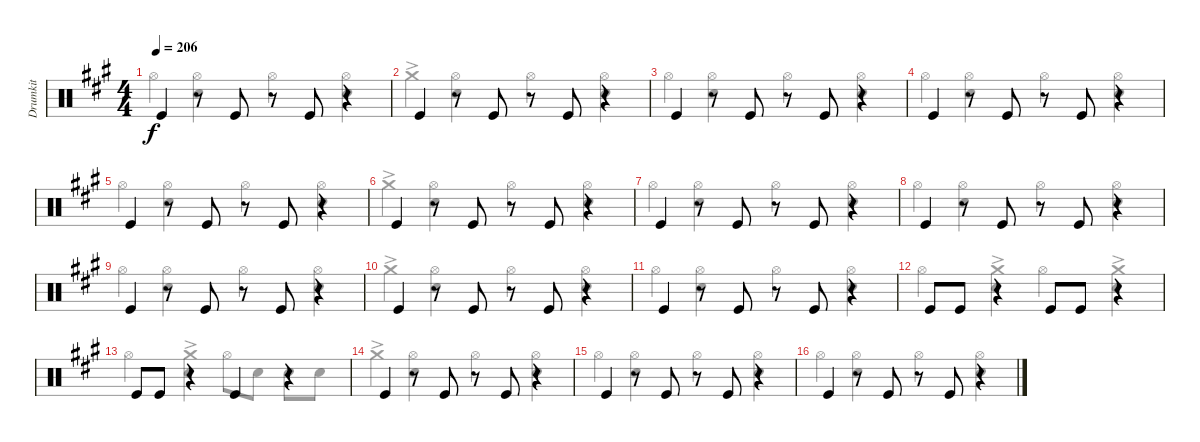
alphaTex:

\track ("Drumkit" "Drumkit") {instrument percussion}
\staff {score}
\articulation defaults
\voice
\ts (4 4)
\tempo 206
\clef neutral
\ks a "Kick (hit)".4{dy f}
r.8 "Kick (hit)".8 r.8 "Kick (hit)".8 r.4 |
"Kick (hit)".4 r.8 "Kick (hit)".8 r.8 "Kick (hit)".8 r.4 |
"Kick (hit)".4 r.8 "Kick (hit)".8 r.8 "Kick (hit)".8 r.4 |
"Kick (hit)".4 r.8 "Kick (hit)".8 r.8 "Kick (hit)".8 r.4 |
"Kick (hit)".4 r.8 "Kick (hit)".8 r.8 "Kick (hit)".8 r.4 |
"Kick (hit)".4 r.8 "Kick (hit)".8 r.8 "Kick (hit)".8 r.4 |
"Kick (hit)".4 r.8 "Kick (hit)".8 r.8 "Kick (hit)".8 r.4 |
"Kick (hit)".4 r.8 "Kick (hit)".8 r.8 "Kick (hit)".8 r.4 |
"Kick (hit)".4 r.8 "Kick (hit)".8 r.8 "Kick (hit)".8 r.4 |
"Kick (hit)".4 r.8 "Kick (hit)".8 r.8 "Kick (hit)".8 r.4 |
"Kick (hit)".4 r.8 "Kick (hit)".8 r.8 "Kick (hit)".8 r.4 |
"Kick (hit)".8 "Kick (hit)".8 r.4 "Kick (hit)".8 "Kick (hit)".8 r.4 |
"Kick (hit)".8 "Kick (hit)".8 r.4 "Kick (hit)".4 r.4 |
"Kick (hit)".4 r.8 "Kick (hit)".8 r.8 "Kick (hit)".8 r.4 |
"Kick (hit)".4 r.8 "Kick (hit)".8 r.8 "Kick (hit)".8 r.4 |
"Kick (hit)".4 r.8 "Kick (hit)".8 r.8 "Kick (hit)".8 r.4
\voice
\clef neutral
\ottava regular
\simile none
\ks a "Hi-Hat (open)".4{dy f}
("Hi-Hat (open)" "Snare (hit) 2").4 "Hi-Hat (open)".4 ("Hi-Hat (open)" "Snare (hit) 2").4 |
"Crash medium (hit)"{ac}.4 ("Hi-Hat (open)" "Snare (hit) 2").4 "Hi-Hat (open)".4 ("Hi-Hat (open)" "Snare (hit) 2").4 |
"Hi-Hat (open)".4 ("Hi-Hat (open)" "Snare (hit) 2").4 "Hi-Hat (open)".4 ("Hi-Hat (open)" "Snare (hit) 2").4 |
"Hi-Hat (open)".4 ("Hi-Hat (open)" "Snare (hit) 2").4 "Hi-Hat (open)".4 ("Hi-Hat (open)" "Snare (hit) 2").4 |
"Hi-Hat (open)".4 ("Hi-Hat (open)" "Snare (hit) 2").4 "Hi-Hat (open)".4 ("Hi-Hat (open)" "Snare (hit) 2").4 |
"Crash medium (hit)"{ac}.4 ("Hi-Hat (open)" "Snare (hit) 2").4 "Hi-Hat (open)".4 ("Hi-Hat (open)" "Snare (hit) 2").4 |
"Hi-Hat (open)".4 ("Hi-Hat (open)" "Snare (hit) 2").4 "Hi-Hat (open)".4 ("Hi-Hat (open)" "Snare (hit) 2").4 |
"Hi-Hat (open)".4 ("Hi-Hat (open)" "Snare (hit) 2").4 "Hi-Hat (open)".4 ("Hi-Hat (open)" "Snare (hit) 2").4 |
"Hi-Hat (open)".4 ("Hi-Hat (open)" "Snare (hit) 2").4 "Hi-Hat (open)".4 ("Hi-Hat (open)" "Snare (hit) 2").4 |
"Crash medium (hit)"{ac}.4 ("Hi-Hat (open)" "Snare (hit) 2").4 "Hi-Hat (open)".4 ("Hi-Hat (open)" "Snare (hit) 2").4 |
"Hi-Hat (open)".4 ("Hi-Hat (open)" "Snare (hit) 2").4 "Hi-Hat (open)".4 ("Hi-Hat (open)" "Snare (hit) 2").4 |
"Hi-Hat (open)".4 ("Crash medium (hit)"{ac} "Snare (hit) 2").4 "Hi-Hat (open)".4 ("Crash medium (hit)"{ac} "Snare (hit) 2").4 |
"Hi-Hat (open)".4 ("Crash medium (hit)"{ac} "Snare (hit) 2").4 "Hi-Hat (open)".8 "Snare (hit) 2".8 "Snare (hit) 2".8 "Snare (hit) 2".8 |
"Crash medium (hit)"{ac}.4 ("Hi-Hat (open)" "Snare (hit) 2").4 "Hi-Hat (open)".4 ("Hi-Hat (open)" "Snare (hit) 2").4 |
"Hi-Hat (open)".4 ("Hi-Hat (open)" "Snare (hit) 2").4 "Hi-Hat (open)".4 ("Hi-Hat (open)" "Snare (hit) 2").4 |
"Hi-Hat (open)".4 ("Hi-Hat (open)" "Snare (hit) 2").4 "Hi-Hat (open)".4 ("Hi-Hat (open)" "Snare (hit) 2").4
